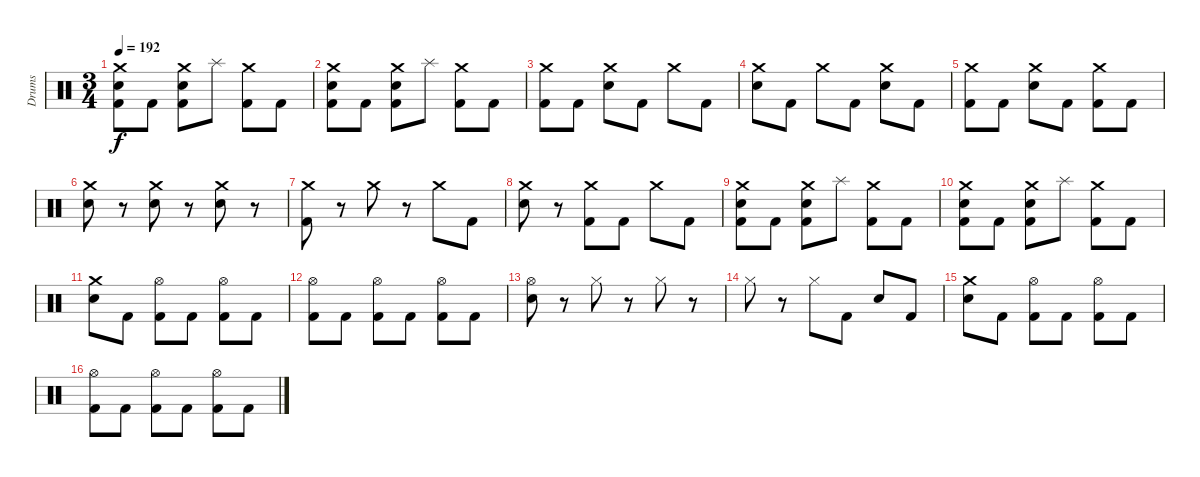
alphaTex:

\track ("Drums" "Drums") {instrument percussion}
\staff {score}
\articulation defaults
\ts (3 4)
\tempo 192
\clef neutral
\ks c
("Crash medium (hit)" "Electric Snare (hit)" "Kick (hit) 2").8{dy f} "Kick (hit) 2".8 ("Crash medium (hit)" "Electric Snare (hit)" "Kick (hit) 2").8 "Splash (hit)".8 ("Crash medium (hit)" "Kick (hit) 2").8 "Kick (hit) 2".8 |
("Crash medium (hit)" "Electric Snare (hit)" "Kick (hit) 2").8 "Kick (hit) 2".8 ("Crash medium (hit)" "Electric Snare (hit)" "Kick (hit) 2").8 "Splash (hit)".8 ("Crash medium (hit)" "Kick (hit) 2").8 "Kick (hit) 2".8 |
("Crash medium (hit)" "Kick (hit) 2").8 "Kick (hit) 2".8 ("Crash medium (hit)" "Electric Snare (hit)").8 "Kick (hit) 2".8 "Crash medium (hit)".8 "Kick (hit) 2".8 |
("Crash medium (hit)" "Electric Snare (hit)").8 "Kick (hit) 2".8 "Crash medium (hit)".8 "Kick (hit) 2".8 ("Crash medium (hit)" "Electric Snare (hit)").8 "Kick (hit) 2".8 |
("Crash medium (hit)" "Kick (hit) 2").8 "Kick (hit) 2".8 ("Crash medium (hit)" "Electric Snare (hit)").8 "Kick (hit) 2".8 ("Crash medium (hit)" "Kick (hit) 2").8 "Kick (hit) 2".8 |
("Crash medium (hit)" "Electric Snare (hit)").8 r.8 ("Crash medium (hit)" "Electric Snare (hit)").8 r.8 ("Crash medium (hit)" "Electric Snare (hit)").8 r.8 |
("Crash medium (hit)" "Kick (hit) 2").8 r.8 "Crash medium (hit)".8 r.8 "Crash medium (hit)".8 "Kick (hit) 2".8 |
("Crash medium (hit)" "Electric Snare (hit)").8 r.8 ("Crash medium (hit)" "Kick (hit) 2").8 "Kick (hit) 2".8 "Crash medium (hit)".8 "Kick (hit) 2".8 |
("Crash medium (hit)" "Electric Snare (hit)" "Kick (hit) 2").8 "Kick (hit) 2".8 ("Crash medium (hit)" "Electric Snare (hit)" "Kick (hit) 2").8 "Splash (hit)".8 ("Crash medium (hit)" "Kick (hit) 2").8 "Kick (hit) 2".8 |
("Crash medium (hit)" "Electric Snare (hit)" "Kick (hit) 2").8 "Kick (hit) 2".8 ("Crash medium (hit)" "Electric Snare (hit)" "Kick (hit) 2").8 "Splash (hit)".8 ("Crash medium (hit)" "Kick (hit) 2").8 "Kick (hit) 2".8 |
("Crash medium (hit)" "Electric Snare (hit)").8 "Kick (hit) 2".8 ("Hi-Hat (open)" "Kick (hit) 2").8 "Kick (hit) 2".8 ("Hi-Hat (open)" "Kick (hit) 2").8 "Kick (hit) 2".8 |
("Hi-Hat (open)" "Kick (hit) 2").8 "Kick (hit) 2".8 ("Hi-Hat (open)" "Kick (hit) 2").8 "Kick (hit) 2".8 ("Hi-Hat (open)" "Kick (hit) 2").8 "Kick (hit) 2".8 |
("Hi-Hat (open)" "Electric Snare (hit)").8 r.8 "Hi-Hat (closed)".8 r.8 "Hi-Hat (closed)".8 r.8 |
"Hi-Hat (closed)".8 r.8 "Hi-Hat (closed)".8 "Kick (hit) 2".8 "Electric Snare (hit)".8 "Kick (hit) 2".8 |
("Crash medium (hit)" "Electric Snare (hit)").8 "Kick (hit) 2".8 ("Hi-Hat (open)" "Kick (hit) 2").8 "Kick (hit) 2".8 ("Hi-Hat (open)" "Kick (hit) 2").8 "Kick (hit) 2".8 |
("Hi-Hat (open)" "Kick (hit) 2").8 "Kick (hit) 2".8 ("Hi-Hat (open)" "Kick (hit) 2").8 "Kick (hit) 2".8 ("Hi-Hat (open)" "Kick (hit) 2").8 "Kick (hit) 2".8
